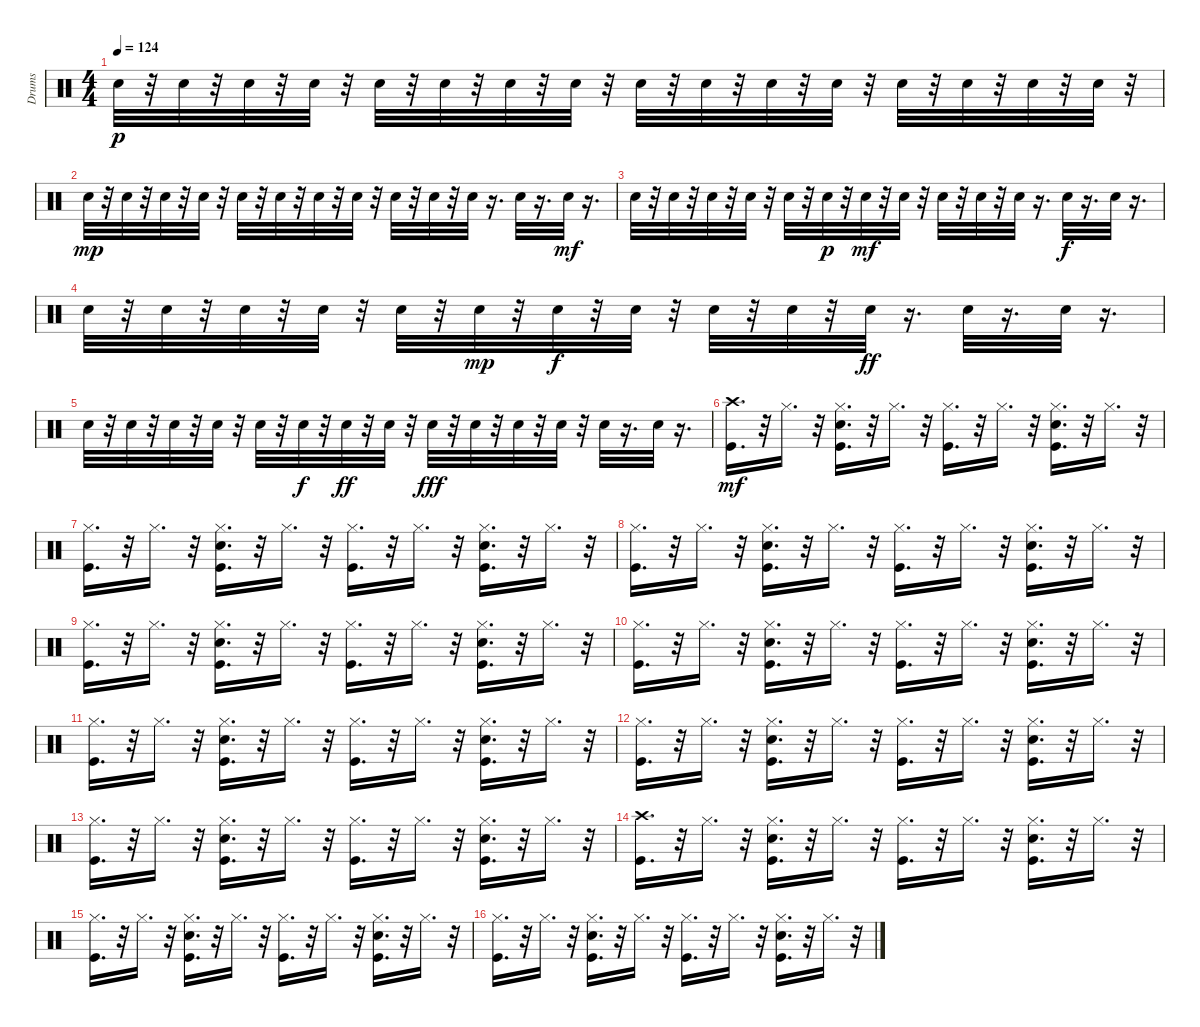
\track ("Drums" "Drums") {instrument percussion}
\staff {score}
\articulation defaults
\ts (4 4)
\tempo 124
\clef neutral
\ks c "Snare (hit) 2".32{dy p}
r.32 "Snare (hit) 2".32 r.32 "Snare (hit) 2".32 r.32 "Snare (hit) 2".32 r.32 "Snare (hit) 2".32 r.32 "Snare (hit) 2".32 r.32 "Snare (hit) 2".32 r.32 "Snare (hit) 2".32 r.32 "Snare (hit) 2".32 r.32 "Snare (hit) 2".32 r.32 "Snare (hit) 2".32 r.32 "Snare (hit) 2".32 r.32 "Snare (hit) 2".32 r.32 "Snare (hit) 2".32 r.32 "Snare (hit) 2".32 r.32 "Snare (hit) 2".32 r.32 |
"Snare (hit) 2".32{dy mp} r.32 "Snare (hit) 2".32 r.32 "Snare (hit) 2".32 r.32 "Snare (hit) 2".32 r.32 "Snare (hit) 2".32 r.32 "Snare (hit) 2".32 r.32 "Snare (hit) 2".32 r.32 "Snare (hit) 2".32 r.32 "Snare (hit) 2".32 r.32 "Snare (hit) 2".32 r.32 "Snare (hit) 2".32 r.16{d} "Snare (hit) 2".32 r.16{d} "Snare (hit) 2".32{dy mf} r.16{d} |
"Snare (hit) 2".32 r.32 "Snare (hit) 2".32 r.32 "Snare (hit) 2".32 r.32 "Snare (hit) 2".32 r.32 "Snare (hit) 2".32 r.32 "Snare (hit) 2".32{dy p} r.32 "Snare (hit) 2".32{dy mf} r.32 "Snare (hit) 2".32 r.32 "Snare (hit) 2".32 r.32 "Snare (hit) 2".32 r.32 "Snare (hit) 2".32 r.16{d} "Snare (hit) 2".32{dy f} r.16{d} "Snare (hit) 2".32 r.16{d} |
"Snare (hit) 2".32 r.32 "Snare (hit) 2".32 r.32 "Snare (hit) 2".32 r.32 "Snare (hit) 2".32 r.32 "Snare (hit) 2".32 r.32 "Snare (hit) 2".32{dy mp} r.32 "Snare (hit) 2".32{dy f} r.32 "Snare (hit) 2".32 r.32 "Snare (hit) 2".32 r.32 "Snare (hit) 2".32 r.32 "Snare (hit) 2".32{dy ff} r.16{d} "Snare (hit) 2".32 r.16{d} "Snare (hit) 2".32 r.16{d} |
"Snare (hit) 2".32 r.32 "Snare (hit) 2".32 r.32 "Snare (hit) 2".32 r.32 "Snare (hit) 2".32 r.32 "Snare (hit) 2".32 r.32 "Snare (hit) 2".32{dy f} r.32 "Snare (hit) 2".32{dy ff} r.32 "Snare (hit) 2".32 r.32 "Snare (hit) 2".32{dy fff} r.32 "Snare (hit) 2".32 r.32 "Snare (hit) 2".32 r.32 "Snare (hit) 2".32 r.32 "Snare (hit) 2".32 r.16{d} "Snare (hit) 2".32 r.16{d} |
("Kick (hit)" "Crash high (hit)").16{d dy mf} r.32 "Hi-Hat (closed)".16{d} r.32 ("Kick (hit)" "Snare (hit) 2" "Hi-Hat (closed)").16{d} r.32 "Hi-Hat (closed)".16{d} r.32 ("Kick (hit)" "Hi-Hat (closed)").16{d} r.32 "Hi-Hat (closed)".16{d} r.32 ("Kick (hit)" "Snare (hit) 2" "Hi-Hat (closed)").16{d} r.32 "Hi-Hat (closed)".16{d} r.32 |
("Kick (hit)" "Hi-Hat (closed)").16{d} r.32 "Hi-Hat (closed)".16{d} r.32 ("Kick (hit)" "Snare (hit) 2" "Hi-Hat (closed)").16{d} r.32 "Hi-Hat (closed)".16{d} r.32 ("Kick (hit)" "Hi-Hat (closed)").16{d} r.32 "Hi-Hat (closed)".16{d} r.32 ("Kick (hit)" "Snare (hit) 2" "Hi-Hat (closed)").16{d} r.32 "Hi-Hat (closed)".16{d} r.32 |
("Kick (hit)" "Hi-Hat (closed)").16{d} r.32 "Hi-Hat (closed)".16{d} r.32 ("Kick (hit)" "Snare (hit) 2" "Hi-Hat (closed)").16{d} r.32 "Hi-Hat (closed)".16{d} r.32 ("Kick (hit)" "Hi-Hat (closed)").16{d} r.32 "Hi-Hat (closed)".16{d} r.32 ("Kick (hit)" "Snare (hit) 2" "Hi-Hat (closed)").16{d} r.32 "Hi-Hat (closed)".16{d} r.32 |
("Kick (hit)" "Hi-Hat (closed)").16{d} r.32 "Hi-Hat (closed)".16{d} r.32 ("Kick (hit)" "Snare (hit) 2" "Hi-Hat (closed)").16{d} r.32 "Hi-Hat (closed)".16{d} r.32 ("Kick (hit)" "Hi-Hat (closed)").16{d} r.32 "Hi-Hat (closed)".16{d} r.32 ("Kick (hit)" "Snare (hit) 2" "Hi-Hat (closed)").16{d} r.32 "Hi-Hat (closed)".16{d} r.32 |
("Kick (hit)" "Hi-Hat (closed)").16{d} r.32 "Hi-Hat (closed)".16{d} r.32 ("Kick (hit)" "Snare (hit) 2" "Hi-Hat (closed)").16{d} r.32 "Hi-Hat (closed)".16{d} r.32 ("Kick (hit)" "Hi-Hat (closed)").16{d} r.32 "Hi-Hat (closed)".16{d} r.32 ("Kick (hit)" "Snare (hit) 2" "Hi-Hat (closed)").16{d} r.32 "Hi-Hat (closed)".16{d} r.32 |
("Kick (hit)" "Hi-Hat (closed)").16{d} r.32 "Hi-Hat (closed)".16{d} r.32 ("Kick (hit)" "Snare (hit) 2" "Hi-Hat (closed)").16{d} r.32 "Hi-Hat (closed)".16{d} r.32 ("Kick (hit)" "Hi-Hat (closed)").16{d} r.32 "Hi-Hat (closed)".16{d} r.32 ("Kick (hit)" "Snare (hit) 2" "Hi-Hat (closed)").16{d} r.32 "Hi-Hat (closed)".16{d} r.32 |
("Kick (hit)" "Hi-Hat (closed)").16{d} r.32 "Hi-Hat (closed)".16{d} r.32 ("Kick (hit)" "Snare (hit) 2" "Hi-Hat (closed)").16{d} r.32 "Hi-Hat (closed)".16{d} r.32 ("Kick (hit)" "Hi-Hat (closed)").16{d} r.32 "Hi-Hat (closed)".16{d} r.32 ("Kick (hit)" "Snare (hit) 2" "Hi-Hat (closed)").16{d} r.32 "Hi-Hat (closed)".16{d} r.32 |
("Kick (hit)" "Hi-Hat (closed)").16{d} r.32 "Hi-Hat (closed)".16{d} r.32 ("Kick (hit)" "Snare (hit) 2" "Hi-Hat (closed)").16{d} r.32 "Hi-Hat (closed)".16{d} r.32 ("Kick (hit)" "Hi-Hat (closed)").16{d} r.32 "Hi-Hat (closed)".16{d} r.32 ("Kick (hit)" "Snare (hit) 2" "Hi-Hat (closed)").16{d} r.32 "Hi-Hat (closed)".16{d} r.32 |
("Kick (hit)" "Crash high (hit)").16{d} r.32 "Hi-Hat (closed)".16{d} r.32 ("Kick (hit)" "Snare (hit) 2" "Hi-Hat (closed)").16{d} r.32 "Hi-Hat (closed)".16{d} r.32 ("Kick (hit)" "Hi-Hat (closed)").16{d} r.32 "Hi-Hat (closed)".16{d} r.32 ("Kick (hit)" "Snare (hit) 2" "Hi-Hat (closed)").16{d} r.32 "Hi-Hat (closed)".16{d} r.32 |
("Kick (hit)" "Hi-Hat (closed)").16{d} r.32 "Hi-Hat (closed)".16{d} r.32 ("Kick (hit)" "Snare (hit) 2" "Hi-Hat (closed)").16{d} r.32 "Hi-Hat (closed)".16{d} r.32 ("Kick (hit)" "Hi-Hat (closed)").16{d} r.32 "Hi-Hat (closed)".16{d} r.32 ("Kick (hit)" "Snare (hit) 2" "Hi-Hat (closed)").16{d} r.32 "Hi-Hat (closed)".16{d} r.32 |
("Kick (hit)" "Hi-Hat (closed)").16{d} r.32 "Hi-Hat (closed)".16{d} r.32 ("Kick (hit)" "Snare (hit) 2" "Hi-Hat (closed)").16{d} r.32 "Hi-Hat (closed)".16{d} r.32 ("Kick (hit)" "Hi-Hat (closed)").16{d} r.32 "Hi-Hat (closed)".16{d} r.32 ("Kick (hit)" "Snare (hit) 2" "Hi-Hat (closed)").16{d} r.32 "Hi-Hat (closed)".16{d} r.32
